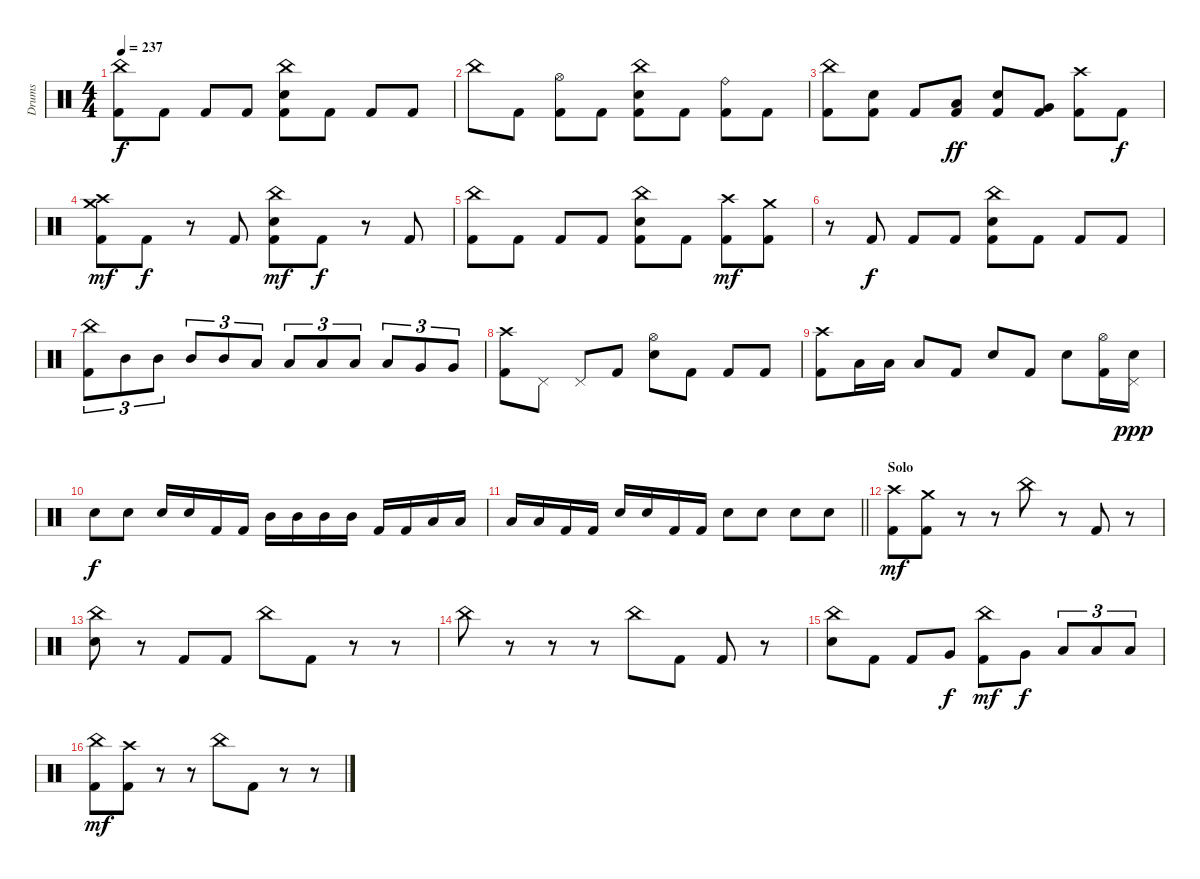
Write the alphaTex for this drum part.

\track ("Drums" "Drums") {instrument percussion}
\staff {score}
\articulation defaults
\ts (4 4)
\tempo 237
\clef neutral
\ks c
("China (hit)" "Kick (hit) 2").8{dy f} "Kick (hit) 2".8 "Kick (hit) 2".8 "Kick (hit) 2".8 ("China (hit)" "Electric Snare (hit)" "Kick (hit) 2").8 "Kick (hit) 2".8 "Kick (hit) 2".8 "Kick (hit) 2".8 |
"China (hit)".8 "Kick (hit) 2".8 ("Hi-Hat (open)" "Kick (hit) 2").8 "Kick (hit) 2".8 ("China (hit)" "Electric Snare (hit)" "Kick (hit) 2").8 "Kick (hit) 2".8 ("Ride (bell)" "Kick (hit) 2").8 "Kick (hit) 2".8 |
("China (hit)" "Kick (hit) 2").8 ("Electric Snare (hit)" "Kick (hit) 2").8 "Kick (hit) 2".8 ("Low Floor Tom (hit)" "Kick (hit) 2").8{dy ff} ("Electric Snare (hit)" "Kick (hit) 2").8 ("Very Low Tom (hit)" "Kick (hit) 2").8 ("Crash high (hit)" "Kick (hit) 2").8 "Kick (hit) 2".8{dy f} |
("Crash high (hit)" "Crash medium (hit)" "Kick (hit) 2").8{dy mf} "Kick (hit) 2".8{dy f} r.8 "Kick (hit) 2".8 ("China (hit)" "Electric Snare (hit)" "Kick (hit) 2").8{dy mf} "Kick (hit) 2".8{dy f} r.8 "Kick (hit) 2".8 |
("China (hit)" "Kick (hit) 2").8 "Kick (hit) 2".8 "Kick (hit) 2".8 "Kick (hit) 2".8 ("China (hit)" "Electric Snare (hit)" "Kick (hit) 2").8 "Kick (hit) 2".8 ("Crash high (hit)" "Kick (hit) 2").8{dy mf} ("Crash medium (hit)" "Kick (hit) 2").8 |
r.8 "Kick (hit) 2".8{dy f} "Kick (hit) 2".8 "Kick (hit) 2".8 ("China (hit)" "Electric Snare (hit)" "Kick (hit) 2").8 "Kick (hit) 2".8 "Kick (hit) 2".8 "Kick (hit) 2".8 |
("China (hit)" "Kick (hit) 2").8{tu (3 2)} "Mid Tom (hit)".8{tu (3 2)} "Mid Tom (hit)".8{tu (3 2)} "Mid Tom (hit)".8{tu (3 2)} "Mid Tom (hit)".8{tu (3 2)} "Low Tom (hit)".8{tu (3 2)} "Low Tom (hit)".8{tu (3 2)} "Low Tom (hit)".8{tu (3 2)} "Low Tom (hit)".8{tu (3 2)} "Low Tom (hit)".8{tu (3 2)} "Very Low Tom (hit)".8{tu (3 2)} "Very Low Tom (hit)".8{tu (3 2)} |
("Crash high (hit)" "Kick (hit) 2").8 "Pedal Hi-Hat (hit)".8 "Pedal Hi-Hat (hit)".8 "Kick (hit) 2".8 ("Hi-Hat (open)" "Electric Snare (hit)").8 "Kick (hit) 2".8 "Kick (hit) 2".8 "Kick (hit) 2".8 |
("Crash high (hit)" "Kick (hit) 2").8 "Low Tom (hit)".16 "Low Tom (hit)".16 "Low Tom (hit)".8 "Kick (hit) 2".8 "Electric Snare (hit)".8 "Kick (hit) 2".8 "Electric Snare (hit)".8 ("Hi-Hat (open)" "Kick (hit) 2").16 ("Pedal Hi-Hat (hit)" "Electric Snare (hit)").16{dy ppp} |
"Electric Snare (hit)".8{dy f} "Electric Snare (hit)".8 "Electric Snare (hit)".16 "Electric Snare (hit)".16 "Kick (hit) 2".16 "Kick (hit) 2".16 "Mid Tom (hit)".16 "Mid Tom (hit)".16 "Mid Tom (hit)".16 "Mid Tom (hit)".16 "Kick (hit) 2".16 "Kick (hit) 2".16 "Low Tom (hit)".16 "Low Tom (hit)".16 |
\barLineRight lightlight "Low Tom (hit)".16 "Low Tom (hit)".16 "Kick (hit) 2".16 "Kick (hit) 2".16 "Electric Snare (hit)".16 "Electric Snare (hit)".16 "Kick (hit) 2".16 "Kick (hit) 2".16 "Electric Snare (hit)".8 "Electric Snare (hit)".8 "Electric Snare (hit)".8 "Electric Snare (hit)".8
|
\section ("" "Solo")
("Crash high (hit)" "Kick (hit) 2").8{dy mf} ("Crash medium (hit)" "Kick (hit) 2").8 r.8 r.8 "China (hit)".8 r.8 "Kick (hit) 2".8 r.8 |
("China (hit)" "Electric Snare (hit)").8 r.8 "Kick (hit) 2".8 "Kick (hit) 2".8 "China (hit)".8 "Kick (hit) 2".8 r.8 r.8 |
"China (hit)".8 r.8 r.8 r.8 "China (hit)".8 "Kick (hit) 2".8 "Kick (hit) 2".8 r.8 |
("China (hit)" "Electric Snare (hit)").8 "Kick (hit) 2".8 "Kick (hit) 2".8 "Very Low Tom (hit)".8{dy f} ("China (hit)" "Kick (hit) 2").8{dy mf} "Very Low Tom (hit)".8{dy f} "Low Floor Tom (hit)".8{tu (3 2)} "Low Floor Tom (hit)".8{tu (3 2)} "Low Floor Tom (hit)".8{tu (3 2)} |
("China (hit)" "Kick (hit) 2").8{dy mf} ("Crash high (hit)" "Kick (hit) 2").8 r.8 r.8 "China (hit)".8 "Kick (hit) 2".8 r.8 r.8
